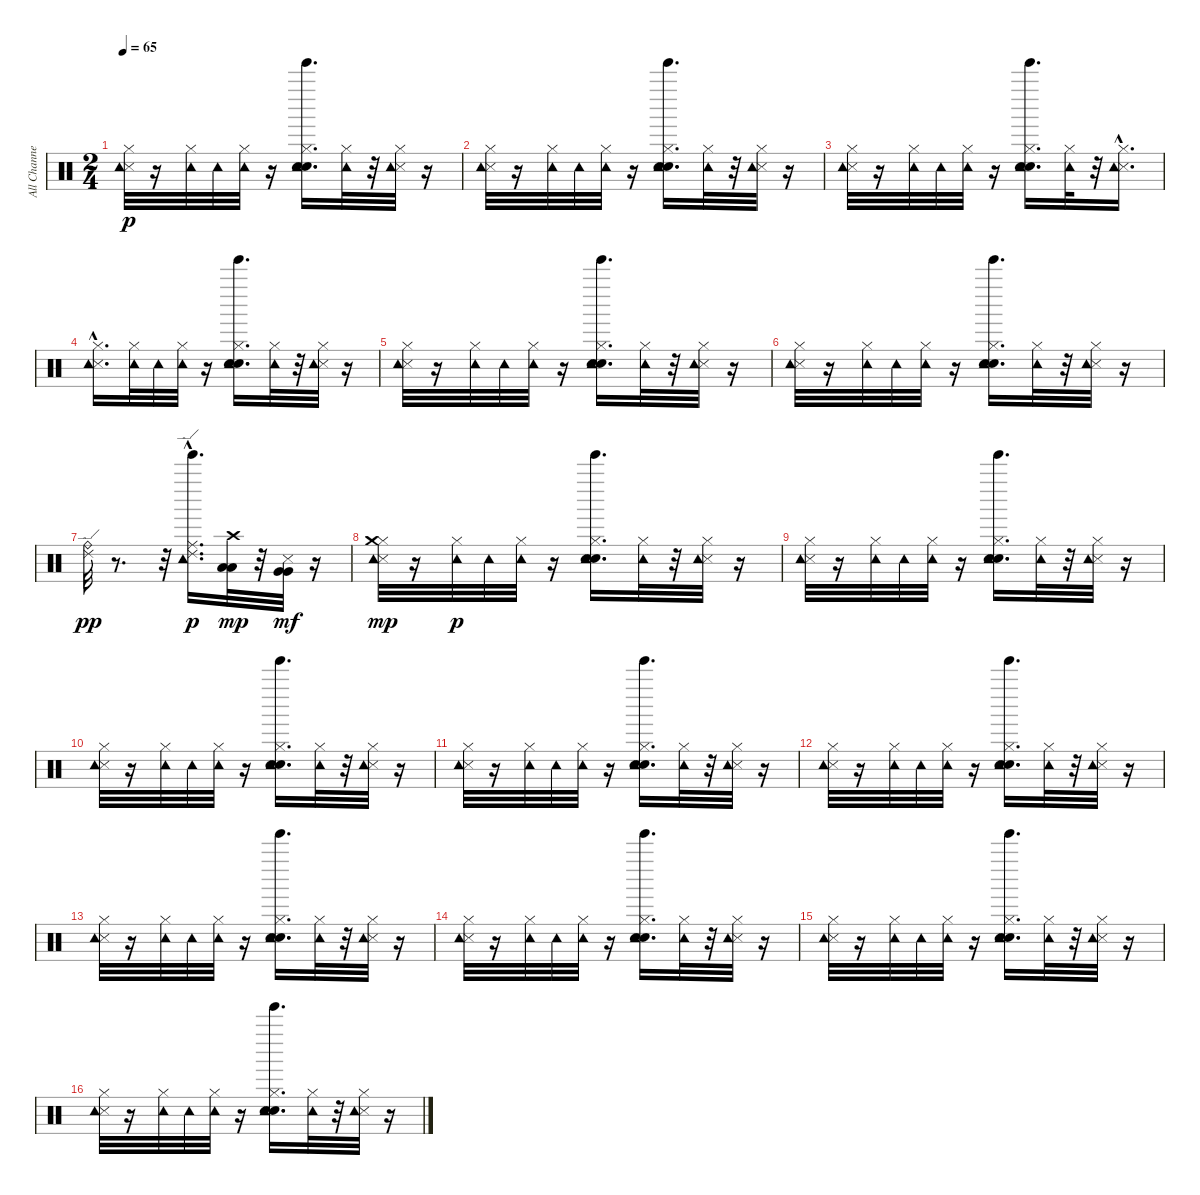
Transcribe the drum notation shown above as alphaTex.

\track ("All Channels*merged" "All Channe") {instrument percussion}
\staff {score}
\articulation defaults
\ts (2 4)
\tempo 65
\clef neutral
\ks c
("Metronome (hit)" "Hi-Hat (closed)" "Tambourine (hit)").32{dy p} r.16 ("Hi-Hat (closed)" "Tambourine (hit)").32 "Tambourine (hit)".32 ("Hi-Hat (closed)" "Tambourine (hit)").32 r.16 ("Metronome (bell)" "Electric Snare (hit)" "Hi-Hat (closed)" "Tambourine (hit)" "Tinkle Bell (hit)").16{d} ("Hi-Hat (closed)" "Tambourine (hit)").32 r.32 ("Metronome (hit)" "Hi-Hat (closed)" "Tambourine (hit)").32 r.16 |
("Metronome (hit)" "Hi-Hat (closed)" "Tambourine (hit)").32 r.16 ("Hi-Hat (closed)" "Tambourine (hit)").32 "Tambourine (hit)".32 ("Hi-Hat (closed)" "Tambourine (hit)").32 r.16 ("Metronome (bell)" "Electric Snare (hit)" "Hi-Hat (closed)" "Tambourine (hit)" "Tinkle Bell (hit)").16{d} ("Hi-Hat (closed)" "Tambourine (hit)").32 r.32 ("Metronome (hit)" "Hi-Hat (closed)" "Tambourine (hit)").32 r.16 |
("Metronome (hit)" "Hi-Hat (closed)" "Tambourine (hit)").32 r.16 ("Hi-Hat (closed)" "Tambourine (hit)").32 "Tambourine (hit)".32 ("Hi-Hat (closed)" "Tambourine (hit)").32 r.16 ("Metronome (bell)" "Electric Snare (hit)" "Hi-Hat (closed)" "Tambourine (hit)" "Tinkle Bell (hit)").16{d} ("Hi-Hat (closed)" "Tambourine (hit)").32 r.32 ("Metronome (hit)"{hac} "Hi-Hat (closed)" "Tambourine (hit)").16{d} |
("Metronome (hit)"{hac} "Hi-Hat (closed)" "Tambourine (hit)").16{d} ("Hi-Hat (closed)" "Tambourine (hit)").32 "Tambourine (hit)".32 ("Hi-Hat (closed)" "Tambourine (hit)").32 r.16 ("Metronome (bell)" "Electric Snare (hit)" "Hi-Hat (closed)" "Tambourine (hit)" "Tinkle Bell (hit)").16{d} ("Hi-Hat (closed)" "Tambourine (hit)").32 r.32 ("Metronome (hit)" "Hi-Hat (closed)" "Tambourine (hit)").32 r.16 |
("Metronome (hit)" "Hi-Hat (closed)" "Tambourine (hit)").32 r.16 ("Hi-Hat (closed)" "Tambourine (hit)").32 "Tambourine (hit)".32 ("Hi-Hat (closed)" "Tambourine (hit)").32 r.16 ("Metronome (bell)" "Electric Snare (hit)" "Hi-Hat (closed)" "Tambourine (hit)" "Tinkle Bell (hit)").16{d} ("Hi-Hat (closed)" "Tambourine (hit)").32 r.32 ("Metronome (hit)" "Hi-Hat (closed)" "Tambourine (hit)").32 r.16 |
("Metronome (hit)" "Hi-Hat (closed)" "Tambourine (hit)").32 r.16 ("Hi-Hat (closed)" "Tambourine (hit)").32 "Tambourine (hit)".32 ("Hi-Hat (closed)" "Tambourine (hit)").32 r.16 ("Metronome (bell)" "Electric Snare (hit)" "Hi-Hat (closed)" "Tambourine (hit)" "Tinkle Bell (hit)").16{d} ("Hi-Hat (closed)" "Tambourine (hit)").32 r.32 ("Metronome (hit)" "Hi-Hat (closed)" "Tambourine (hit)").32 r.16 |
("Ride (bell)" "Ride (edge) 2").32{dy pp} r.8{d} r.32 ("Ride (middle)"{hac} "Tambourine (hit)" "Ride (edge) 2" "Tinkle Bell (hit)").16{d dy p} ("Low Tom (hit)" "Low Tom (hit)" "Crash high (hit)").32{dy mp} r.32 ("Metronome (hit)" "Very Low Tom (hit)" "Very Low Tom (hit)").32{dy mf} r.16 |
("Metronome (hit)" "Hi-Hat (closed)" "Tambourine (hit)" "Crash medium (hit)").32{dy mp} r.16 ("Hi-Hat (closed)" "Tambourine (hit)").32{dy p} "Tambourine (hit)".32 ("Hi-Hat (closed)" "Tambourine (hit)").32 r.16 ("Metronome (bell)" "Electric Snare (hit)" "Hi-Hat (closed)" "Tambourine (hit)" "Tinkle Bell (hit)").16{d} ("Hi-Hat (closed)" "Tambourine (hit)").32 r.32 ("Metronome (hit)" "Hi-Hat (closed)" "Tambourine (hit)").32 r.16 |
("Metronome (hit)" "Hi-Hat (closed)" "Tambourine (hit)").32 r.16 ("Hi-Hat (closed)" "Tambourine (hit)").32 "Tambourine (hit)".32 ("Hi-Hat (closed)" "Tambourine (hit)").32 r.16 ("Metronome (bell)" "Electric Snare (hit)" "Hi-Hat (closed)" "Tambourine (hit)" "Tinkle Bell (hit)").16{d} ("Hi-Hat (closed)" "Tambourine (hit)").32 r.32 ("Metronome (hit)" "Hi-Hat (closed)" "Tambourine (hit)").32 r.16 |
("Metronome (hit)" "Hi-Hat (closed)" "Tambourine (hit)").32 r.16 ("Hi-Hat (closed)" "Tambourine (hit)").32 "Tambourine (hit)".32 ("Hi-Hat (closed)" "Tambourine (hit)").32 r.16 ("Metronome (bell)" "Electric Snare (hit)" "Hi-Hat (closed)" "Tambourine (hit)" "Tinkle Bell (hit)").16{d} ("Hi-Hat (closed)" "Tambourine (hit)").32 r.32 ("Metronome (hit)" "Hi-Hat (closed)" "Tambourine (hit)").32 r.16 |
("Metronome (hit)" "Hi-Hat (closed)" "Tambourine (hit)").32 r.16 ("Hi-Hat (closed)" "Tambourine (hit)").32 "Tambourine (hit)".32 ("Hi-Hat (closed)" "Tambourine (hit)").32 r.16 ("Metronome (bell)" "Electric Snare (hit)" "Hi-Hat (closed)" "Tambourine (hit)" "Tinkle Bell (hit)").16{d} ("Hi-Hat (closed)" "Tambourine (hit)").32 r.32 ("Metronome (hit)" "Hi-Hat (closed)" "Tambourine (hit)").32 r.16 |
("Metronome (hit)" "Hi-Hat (closed)" "Tambourine (hit)").32 r.16 ("Hi-Hat (closed)" "Tambourine (hit)").32 "Tambourine (hit)".32 ("Hi-Hat (closed)" "Tambourine (hit)").32 r.16 ("Metronome (bell)" "Electric Snare (hit)" "Hi-Hat (closed)" "Tambourine (hit)" "Tinkle Bell (hit)").16{d} ("Hi-Hat (closed)" "Tambourine (hit)").32 r.32 ("Metronome (hit)" "Hi-Hat (closed)" "Tambourine (hit)").32 r.16 |
("Metronome (hit)" "Hi-Hat (closed)" "Tambourine (hit)").32 r.16 ("Hi-Hat (closed)" "Tambourine (hit)").32 "Tambourine (hit)".32 ("Hi-Hat (closed)" "Tambourine (hit)").32 r.16 ("Metronome (bell)" "Electric Snare (hit)" "Hi-Hat (closed)" "Tambourine (hit)" "Tinkle Bell (hit)").16{d} ("Hi-Hat (closed)" "Tambourine (hit)").32 r.32 ("Metronome (hit)" "Hi-Hat (closed)" "Tambourine (hit)").32 r.16 |
("Metronome (hit)" "Hi-Hat (closed)" "Tambourine (hit)").32 r.16 ("Hi-Hat (closed)" "Tambourine (hit)").32 "Tambourine (hit)".32 ("Hi-Hat (closed)" "Tambourine (hit)").32 r.16 ("Metronome (bell)" "Electric Snare (hit)" "Hi-Hat (closed)" "Tambourine (hit)" "Tinkle Bell (hit)").16{d} ("Hi-Hat (closed)" "Tambourine (hit)").32 r.32 ("Metronome (hit)" "Hi-Hat (closed)" "Tambourine (hit)").32 r.16 |
("Metronome (hit)" "Hi-Hat (closed)" "Tambourine (hit)").32 r.16 ("Hi-Hat (closed)" "Tambourine (hit)").32 "Tambourine (hit)".32 ("Hi-Hat (closed)" "Tambourine (hit)").32 r.16 ("Metronome (bell)" "Electric Snare (hit)" "Hi-Hat (closed)" "Tambourine (hit)" "Tinkle Bell (hit)").16{d} ("Hi-Hat (closed)" "Tambourine (hit)").32 r.32 ("Metronome (hit)" "Hi-Hat (closed)" "Tambourine (hit)").32 r.16 |
("Metronome (hit)" "Hi-Hat (closed)" "Tambourine (hit)").32 r.16 ("Hi-Hat (closed)" "Tambourine (hit)").32 "Tambourine (hit)".32 ("Hi-Hat (closed)" "Tambourine (hit)").32 r.16 ("Metronome (bell)" "Electric Snare (hit)" "Hi-Hat (closed)" "Tambourine (hit)" "Tinkle Bell (hit)").16{d} ("Hi-Hat (closed)" "Tambourine (hit)").32 r.32 ("Metronome (hit)" "Hi-Hat (closed)" "Tambourine (hit)").32 r.16
